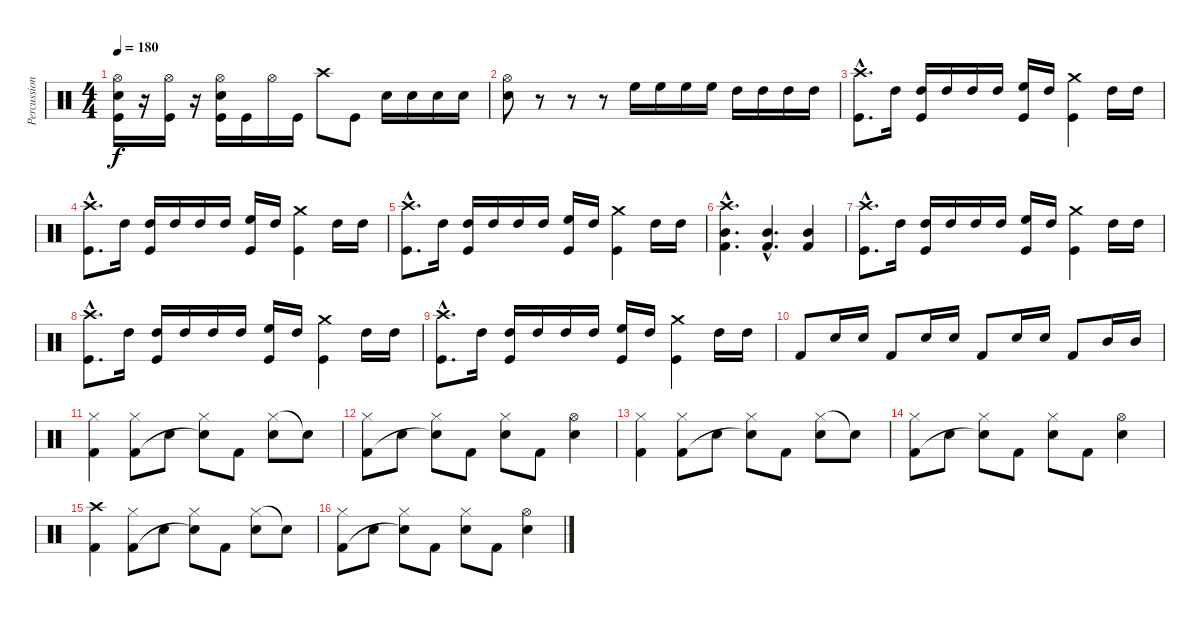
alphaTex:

\track ("Percussion" "Percussion") {instrument percussion}
\staff {score}
\articulation defaults
\ts (4 4)
\tempo 180
\clef neutral
\ks c
("Hi-Hat (open)" "Snare (hit) 2" "Kick (hit)").16{dy f} r.16 ("Hi-Hat (open)" "Kick (hit)").16 r.16 ("Hi-Hat (open)" "Snare (hit) 2" "Kick (hit)").16 "Kick (hit)".16 "Hi-Hat (open)".16 "Kick (hit)".16 "Crash high (hit)".8 "Kick (hit)".8 "Snare (hit) 2".16 "Snare (hit) 2".16 "Snare (hit) 2".16 "Snare (hit) 2".16 |
("Hi-Hat (open)" "Snare (hit) 2").8 r.8 r.8 r.8 "High Floor Tom (hit)".16 "High Floor Tom (hit)".16 "High Floor Tom (hit)".16 "High Floor Tom (hit)".16 "High Tom (hit)".16 "High Tom (hit)".16 "High Tom (hit)".16 "High Tom (hit)".16 |
("Crash high (hit)"{hac} "Kick (hit)"{hac}).8{d} "High Tom (hit)".16 ("High Tom (hit)" "Kick (hit)").16 "High Tom (hit)".16 "High Tom (hit)".16 "High Tom (hit)".16 ("High Floor Tom (hit)" "Kick (hit)").16 "High Tom (hit)".16 ("Crash medium (hit)" "Kick (hit)").4 "High Tom (hit)".16 "High Tom (hit)".16 |
("Crash high (hit)"{hac} "Kick (hit)"{hac}).8{d} "High Tom (hit)".16 ("High Tom (hit)" "Kick (hit)").16 "High Tom (hit)".16 "High Tom (hit)".16 "High Tom (hit)".16 ("High Floor Tom (hit)" "Kick (hit)").16 "High Tom (hit)".16 ("Crash medium (hit)" "Kick (hit)").4 "High Tom (hit)".16 "High Tom (hit)".16 |
("Crash high (hit)"{hac} "Kick (hit)"{hac}).8{d} "High Tom (hit)".16 ("High Tom (hit)" "Kick (hit)").16 "High Tom (hit)".16 "High Tom (hit)".16 "High Tom (hit)".16 ("High Floor Tom (hit)" "Kick (hit)").16 "High Tom (hit)".16 ("Crash medium (hit)" "Kick (hit)").4 "High Tom (hit)".16 "High Tom (hit)".16 |
("Crash high (hit)"{hac} "Mid Tom (hit)"{hac} "Kick (hit) 2"{hac}).4{d} ("Mid Tom (hit)"{hac} "Kick (hit) 2"{hac}).4{d} ("Mid Tom (hit)" "Kick (hit) 2").4 |
("Crash high (hit)"{hac} "Kick (hit)"{hac}).8{d} "High Tom (hit)".16 ("High Tom (hit)" "Kick (hit)").16 "High Tom (hit)".16 "High Tom (hit)".16 "High Tom (hit)".16 ("High Floor Tom (hit)" "Kick (hit)").16 "High Tom (hit)".16 ("Crash medium (hit)" "Kick (hit)").4 "High Tom (hit)".16 "High Tom (hit)".16 |
("Crash high (hit)"{hac} "Kick (hit)"{hac}).8{d} "High Tom (hit)".16 ("High Tom (hit)" "Kick (hit)").16 "High Tom (hit)".16 "High Tom (hit)".16 "High Tom (hit)".16 ("High Floor Tom (hit)" "Kick (hit)").16 "High Tom (hit)".16 ("Crash medium (hit)" "Kick (hit)").4 "High Tom (hit)".16 "High Tom (hit)".16 |
("Crash high (hit)"{hac} "Kick (hit)"{hac}).8{d} "High Tom (hit)".16 ("High Tom (hit)" "Kick (hit)").16 "High Tom (hit)".16 "High Tom (hit)".16 "High Tom (hit)".16 ("High Floor Tom (hit)" "Kick (hit)").16 "High Tom (hit)".16 ("Crash medium (hit)" "Kick (hit)").4 "High Tom (hit)".16 "High Tom (hit)".16 |
"Kick (hit) 2".8 "Snare (hit) 2".16 "Snare (hit) 2".16 "Kick (hit) 2".8 "Snare (hit) 2".16 "Snare (hit) 2".16 "Kick (hit) 2".8 "Snare (hit) 2".16 "Snare (hit) 2".16 "Kick (hit) 2".8 "Mid Tom (hit)".16 "Mid Tom (hit)".16 |
("Hi-Hat (closed)" "Kick (hit) 2").4 ("Hi-Hat (closed)" "Kick (hit) 2").8 "Snare (hit) 2".8 ("Hi-Hat (closed)" "Snare (hit)"{t}).8 "Kick (hit) 2".8 ("Hi-Hat (closed)" "Snare (hit) 2").8 "Snare (hit)"{t}.8 |
("Hi-Hat (closed)" "Kick (hit) 2").8 "Snare (hit) 2".8 ("Hi-Hat (closed)" "Snare (hit)"{t}).8 "Kick (hit) 2".8 ("Hi-Hat (closed)" "Snare (hit) 2").8 "Kick (hit) 2".8 ("Hi-Hat (open)" "Snare (hit) 2").4 |
("Hi-Hat (closed)" "Kick (hit) 2").4 ("Hi-Hat (closed)" "Kick (hit) 2").8 "Snare (hit) 2".8 ("Hi-Hat (closed)" "Snare (hit)"{t}).8 "Kick (hit) 2".8 ("Hi-Hat (closed)" "Snare (hit) 2").8 "Snare (hit)"{t}.8 |
("Hi-Hat (closed)" "Kick (hit) 2").8 "Snare (hit) 2".8 ("Hi-Hat (closed)" "Snare (hit)"{t}).8 "Kick (hit) 2".8 ("Hi-Hat (closed)" "Snare (hit) 2").8 "Kick (hit) 2".8 ("Hi-Hat (open)" "Snare (hit) 2").4 |
("Crash high (hit)" "Kick (hit) 2").4 ("Hi-Hat (closed)" "Kick (hit) 2").8 "Snare (hit) 2".8 ("Hi-Hat (closed)" "Snare (hit)"{t}).8 "Kick (hit) 2".8 ("Hi-Hat (closed)" "Snare (hit) 2").8 "Snare (hit)"{t}.8 |
("Hi-Hat (closed)" "Kick (hit) 2").8 "Snare (hit) 2".8 ("Hi-Hat (closed)" "Snare (hit)"{t}).8 "Kick (hit) 2".8 ("Hi-Hat (closed)" "Snare (hit) 2").8 "Kick (hit) 2".8 ("Hi-Hat (open)" "Snare (hit) 2").4
